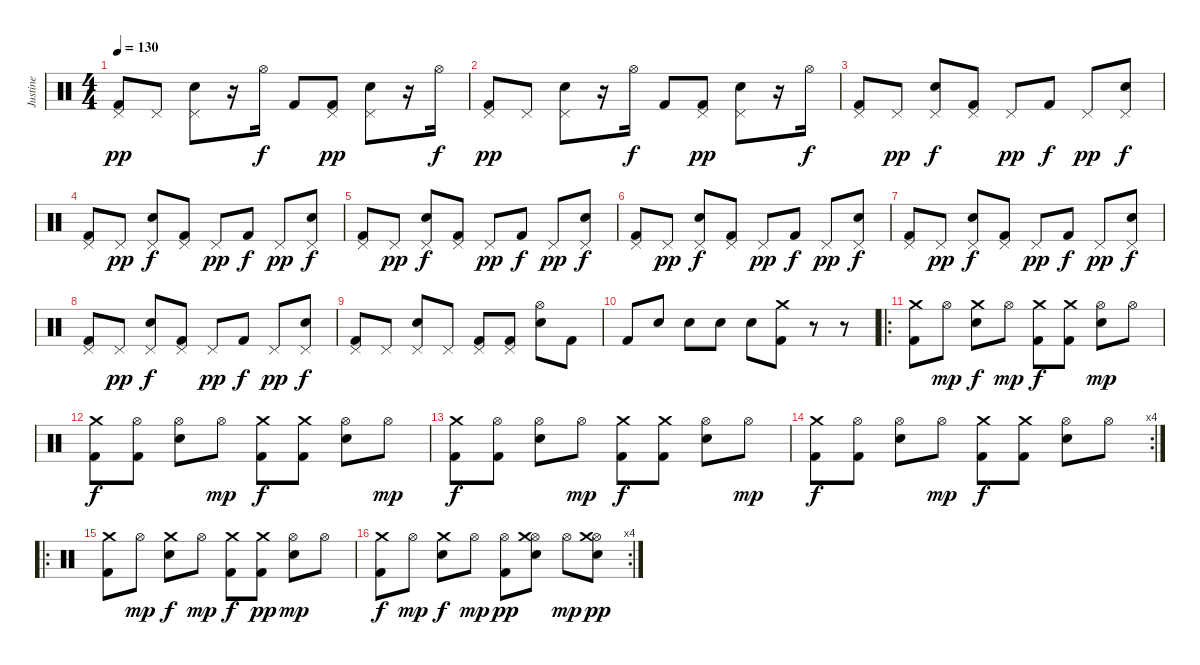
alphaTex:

\track ("Justine" "Justine") {instrument percussion}
\staff {score}
\articulation defaults
\ts (4 4)
\tempo 130
\clef neutral
\ks c
("Pedal Hi-Hat (hit)" "Kick (hit) 2").8{dy pp} "Pedal Hi-Hat (hit)".8 ("Pedal Hi-Hat (hit)" "Electric Snare (hit)").8 r.16 "Hi-Hat (open)".16{dy f} "Kick (hit) 2".8 ("Pedal Hi-Hat (hit)" "Kick (hit) 2").8{dy pp} ("Pedal Hi-Hat (hit)" "Electric Snare (hit)").8 r.16 "Hi-Hat (open)".16{dy f} |
("Pedal Hi-Hat (hit)" "Kick (hit) 2").8{dy pp} "Pedal Hi-Hat (hit)".8 ("Pedal Hi-Hat (hit)" "Electric Snare (hit)").8 r.16 "Hi-Hat (open)".16{dy f} "Kick (hit) 2".8 ("Pedal Hi-Hat (hit)" "Kick (hit) 2").8{dy pp} ("Pedal Hi-Hat (hit)" "Electric Snare (hit)").8 r.16 "Hi-Hat (open)".16{dy f} |
("Pedal Hi-Hat (hit)" "Kick (hit) 2").8 "Pedal Hi-Hat (hit)".8{dy pp} ("Pedal Hi-Hat (hit)" "Electric Snare (hit)").8{dy f} ("Pedal Hi-Hat (hit)" "Kick (hit) 2").8 "Pedal Hi-Hat (hit)".8{dy pp} "Kick (hit) 2".8{dy f} "Pedal Hi-Hat (hit)".8{dy pp} ("Pedal Hi-Hat (hit)" "Electric Snare (hit)").8{dy f} |
("Pedal Hi-Hat (hit)" "Kick (hit) 2").8 "Pedal Hi-Hat (hit)".8{dy pp} ("Pedal Hi-Hat (hit)" "Electric Snare (hit)").8{dy f} ("Pedal Hi-Hat (hit)" "Kick (hit) 2").8 "Pedal Hi-Hat (hit)".8{dy pp} "Kick (hit) 2".8{dy f} "Pedal Hi-Hat (hit)".8{dy pp} ("Pedal Hi-Hat (hit)" "Electric Snare (hit)").8{dy f} |
("Pedal Hi-Hat (hit)" "Kick (hit) 2").8 "Pedal Hi-Hat (hit)".8{dy pp} ("Pedal Hi-Hat (hit)" "Electric Snare (hit)").8{dy f} ("Pedal Hi-Hat (hit)" "Kick (hit) 2").8 "Pedal Hi-Hat (hit)".8{dy pp} "Kick (hit) 2".8{dy f} "Pedal Hi-Hat (hit)".8{dy pp} ("Pedal Hi-Hat (hit)" "Electric Snare (hit)").8{dy f} |
("Pedal Hi-Hat (hit)" "Kick (hit) 2").8 "Pedal Hi-Hat (hit)".8{dy pp} ("Pedal Hi-Hat (hit)" "Electric Snare (hit)").8{dy f} ("Pedal Hi-Hat (hit)" "Kick (hit) 2").8 "Pedal Hi-Hat (hit)".8{dy pp} "Kick (hit) 2".8{dy f} "Pedal Hi-Hat (hit)".8{dy pp} ("Pedal Hi-Hat (hit)" "Electric Snare (hit)").8{dy f} |
("Pedal Hi-Hat (hit)" "Kick (hit) 2").8 "Pedal Hi-Hat (hit)".8{dy pp} ("Pedal Hi-Hat (hit)" "Electric Snare (hit)").8{dy f} ("Pedal Hi-Hat (hit)" "Kick (hit) 2").8 "Pedal Hi-Hat (hit)".8{dy pp} "Kick (hit) 2".8{dy f} "Pedal Hi-Hat (hit)".8{dy pp} ("Pedal Hi-Hat (hit)" "Electric Snare (hit)").8{dy f} |
("Pedal Hi-Hat (hit)" "Kick (hit) 2").8 "Pedal Hi-Hat (hit)".8{dy pp} ("Pedal Hi-Hat (hit)" "Electric Snare (hit)").8{dy f} ("Pedal Hi-Hat (hit)" "Kick (hit) 2").8 "Pedal Hi-Hat (hit)".8{dy pp} "Kick (hit) 2".8{dy f} "Pedal Hi-Hat (hit)".8{dy pp} ("Pedal Hi-Hat (hit)" "Electric Snare (hit)").8{dy f} |
("Pedal Hi-Hat (hit)" "Kick (hit) 2").8 "Pedal Hi-Hat (hit)".8 ("Pedal Hi-Hat (hit)" "Electric Snare (hit)").8 "Pedal Hi-Hat (hit)".8 ("Pedal Hi-Hat (hit)" "Kick (hit) 2").8 ("Pedal Hi-Hat (hit)" "Kick (hit) 2").8 ("Hi-Hat (open)" "Electric Snare (hit)").8 "Kick (hit) 2".8 |
"Kick (hit) 2".8 "Electric Snare (hit)".8 "Electric Snare (hit)".8 "Electric Snare (hit)".8 "Electric Snare (hit)".8 ("Crash medium (hit)" "Kick (hit) 2").8 r.8 r.8 |
\ro
("Crash medium (hit)" "Kick (hit) 2").8 "Hi-Hat (open)".8{dy mp} ("Crash medium (hit)" "Electric Snare (hit)").8{dy f} "Hi-Hat (open)".8{dy mp} ("Crash medium (hit)" "Kick (hit) 2").8{dy f} ("Crash medium (hit)" "Kick (hit) 2").8 ("Hi-Hat (open)" "Electric Snare (hit)").8{dy mp} "Hi-Hat (open)".8 |
("Crash medium (hit)" "Kick (hit) 2").8{dy f} ("Hi-Hat (open)" "Kick (hit) 2").8 ("Hi-Hat (open)" "Electric Snare (hit)").8 "Hi-Hat (open)".8{dy mp} ("Crash medium (hit)" "Kick (hit) 2").8{dy f} ("Crash medium (hit)" "Kick (hit) 2").8 ("Hi-Hat (open)" "Electric Snare (hit)").8 "Hi-Hat (open)".8{dy mp} |
("Crash medium (hit)" "Kick (hit) 2").8{dy f} ("Hi-Hat (open)" "Kick (hit) 2").8 ("Hi-Hat (open)" "Electric Snare (hit)").8 "Hi-Hat (open)".8{dy mp} ("Crash medium (hit)" "Kick (hit) 2").8{dy f} ("Crash medium (hit)" "Kick (hit) 2").8 ("Hi-Hat (open)" "Electric Snare (hit)").8 "Hi-Hat (open)".8{dy mp} |
\rc 4
("Crash medium (hit)" "Kick (hit) 2").8{dy f} ("Hi-Hat (open)" "Kick (hit) 2").8 ("Hi-Hat (open)" "Electric Snare (hit)").8 "Hi-Hat (open)".8{dy mp} ("Crash medium (hit)" "Kick (hit) 2").8{dy f} ("Crash medium (hit)" "Kick (hit) 2").8 ("Hi-Hat (open)" "Electric Snare (hit)").8 "Hi-Hat (open)".8 |
\ro
("Crash medium (hit)" "Kick (hit) 2").8 "Hi-Hat (open)".8{dy mp} ("Crash medium (hit)" "Electric Snare (hit)").8{dy f} "Hi-Hat (open)".8{dy mp} ("Crash medium (hit)" "Kick (hit) 2").8{dy f} ("Crash medium (hit)" "Kick (hit) 2").8{dy pp} ("Hi-Hat (open)" "Electric Snare (hit)").8{dy mp} "Hi-Hat (open)".8 |
\rc 4
("Crash medium (hit)" "Kick (hit) 2").8{dy f} "Hi-Hat (open)".8{dy mp} ("Crash medium (hit)" "Electric Snare (hit)").8{dy f} "Hi-Hat (open)".8{dy mp} ("Hi-Hat (open)" "Kick (hit) 2").8{dy pp} ("Hi-Hat (open)" "Crash medium (hit)" "Electric Snare (hit)").8 "Hi-Hat (open)".8{dy mp} ("Hi-Hat (open)" "Crash medium (hit)" "Electric Snare (hit)").8{dy pp}
